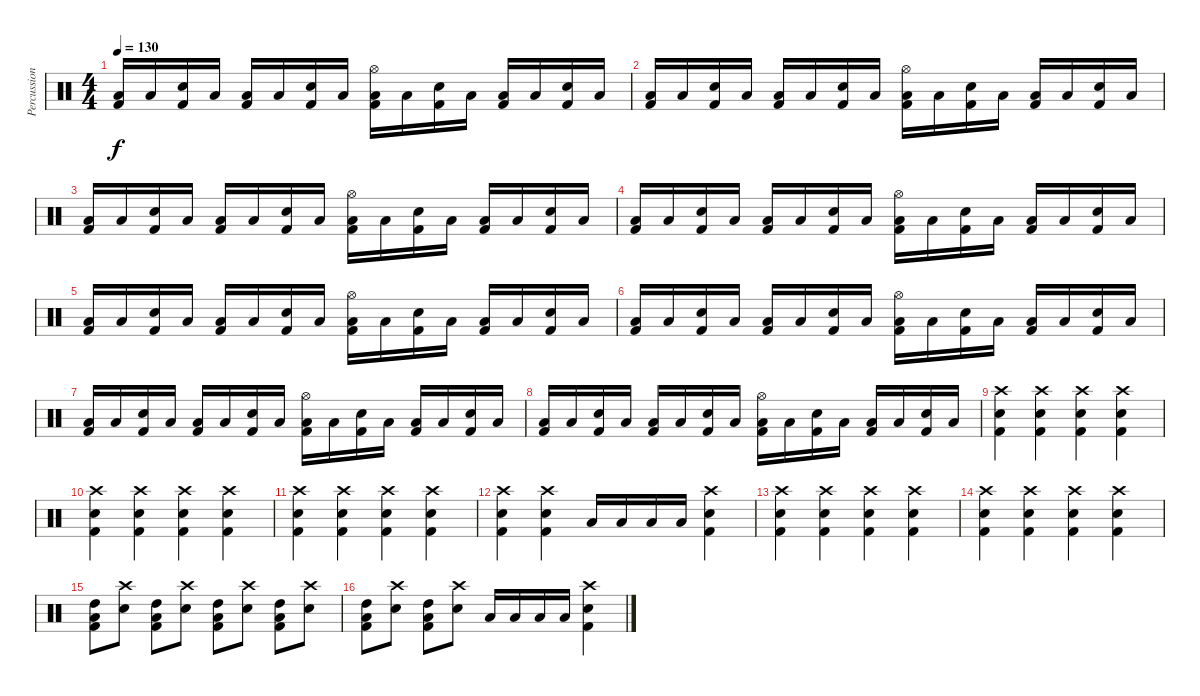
\track ("Percussion" "Percussion") {instrument percussion}
\staff {score}
\articulation defaults
\ts (4 4)
\tempo 130
\clef neutral
\ks c
("Low Tom (hit)" "Kick (hit) 2").16{dy f} "Low Tom (hit)".16 ("Snare (hit) 2" "Kick (hit) 2").16 "Low Tom (hit)".16 ("Low Tom (hit)" "Kick (hit) 2").16 "Low Tom (hit)".16 ("Snare (hit) 2" "Kick (hit) 2").16 "Low Tom (hit)".16 ("Low Tom (hit)" "Kick (hit) 2" "Hi-Hat (open)").16 "Low Tom (hit)".16 ("Snare (hit) 2" "Kick (hit) 2").16 "Low Tom (hit)".16 ("Low Tom (hit)" "Kick (hit) 2").16 "Low Tom (hit)".16 ("Snare (hit) 2" "Kick (hit) 2").16 "Low Tom (hit)".16 |
("Low Tom (hit)" "Kick (hit) 2").16 "Low Tom (hit)".16 ("Snare (hit) 2" "Kick (hit) 2").16 "Low Tom (hit)".16 ("Low Tom (hit)" "Kick (hit) 2").16 "Low Tom (hit)".16 ("Snare (hit) 2" "Kick (hit) 2").16 "Low Tom (hit)".16 ("Low Tom (hit)" "Kick (hit) 2" "Hi-Hat (open)").16 "Low Tom (hit)".16 ("Snare (hit) 2" "Kick (hit) 2").16 "Low Tom (hit)".16 ("Low Tom (hit)" "Kick (hit) 2").16 "Low Tom (hit)".16 ("Snare (hit) 2" "Kick (hit) 2").16 "Low Tom (hit)".16 |
("Low Tom (hit)" "Kick (hit) 2").16 "Low Tom (hit)".16 ("Snare (hit) 2" "Kick (hit) 2").16 "Low Tom (hit)".16 ("Low Tom (hit)" "Kick (hit) 2").16 "Low Tom (hit)".16 ("Snare (hit) 2" "Kick (hit) 2").16 "Low Tom (hit)".16 ("Low Tom (hit)" "Kick (hit) 2" "Hi-Hat (open)").16 "Low Tom (hit)".16 ("Snare (hit) 2" "Kick (hit) 2").16 "Low Tom (hit)".16 ("Low Tom (hit)" "Kick (hit) 2").16 "Low Tom (hit)".16 ("Snare (hit) 2" "Kick (hit) 2").16 "Low Tom (hit)".16 |
("Low Tom (hit)" "Kick (hit) 2").16 "Low Tom (hit)".16 ("Snare (hit) 2" "Kick (hit) 2").16 "Low Tom (hit)".16 ("Low Tom (hit)" "Kick (hit) 2").16 "Low Tom (hit)".16 ("Snare (hit) 2" "Kick (hit) 2").16 "Low Tom (hit)".16 ("Low Tom (hit)" "Kick (hit) 2" "Hi-Hat (open)").16 "Low Tom (hit)".16 ("Snare (hit) 2" "Kick (hit) 2").16 "Low Tom (hit)".16 ("Low Tom (hit)" "Kick (hit) 2").16 "Low Tom (hit)".16 ("Snare (hit) 2" "Kick (hit) 2").16 "Low Tom (hit)".16 |
("Low Tom (hit)" "Kick (hit) 2").16 "Low Tom (hit)".16 ("Snare (hit) 2" "Kick (hit) 2").16 "Low Tom (hit)".16 ("Low Tom (hit)" "Kick (hit) 2").16 "Low Tom (hit)".16 ("Snare (hit) 2" "Kick (hit) 2").16 "Low Tom (hit)".16 ("Low Tom (hit)" "Kick (hit) 2" "Hi-Hat (open)").16 "Low Tom (hit)".16 ("Snare (hit) 2" "Kick (hit) 2").16 "Low Tom (hit)".16 ("Low Tom (hit)" "Kick (hit) 2").16 "Low Tom (hit)".16 ("Snare (hit) 2" "Kick (hit) 2").16 "Low Tom (hit)".16 |
("Low Tom (hit)" "Kick (hit) 2").16 "Low Tom (hit)".16 ("Snare (hit) 2" "Kick (hit) 2").16 "Low Tom (hit)".16 ("Low Tom (hit)" "Kick (hit) 2").16 "Low Tom (hit)".16 ("Snare (hit) 2" "Kick (hit) 2").16 "Low Tom (hit)".16 ("Low Tom (hit)" "Kick (hit) 2" "Hi-Hat (open)").16 "Low Tom (hit)".16 ("Snare (hit) 2" "Kick (hit) 2").16 "Low Tom (hit)".16 ("Low Tom (hit)" "Kick (hit) 2").16 "Low Tom (hit)".16 ("Snare (hit) 2" "Kick (hit) 2").16 "Low Tom (hit)".16 |
("Low Tom (hit)" "Kick (hit) 2").16 "Low Tom (hit)".16 ("Snare (hit) 2" "Kick (hit) 2").16 "Low Tom (hit)".16 ("Low Tom (hit)" "Kick (hit) 2").16 "Low Tom (hit)".16 ("Snare (hit) 2" "Kick (hit) 2").16 "Low Tom (hit)".16 ("Low Tom (hit)" "Kick (hit) 2" "Hi-Hat (open)").16 "Low Tom (hit)".16 ("Snare (hit) 2" "Kick (hit) 2").16 "Low Tom (hit)".16 ("Low Tom (hit)" "Kick (hit) 2").16 "Low Tom (hit)".16 ("Snare (hit) 2" "Kick (hit) 2").16 "Low Tom (hit)".16 |
("Low Tom (hit)" "Kick (hit) 2").16 "Low Tom (hit)".16 ("Snare (hit) 2" "Kick (hit) 2").16 "Low Tom (hit)".16 ("Low Tom (hit)" "Kick (hit) 2").16 "Low Tom (hit)".16 ("Snare (hit) 2" "Kick (hit) 2").16 "Low Tom (hit)".16 ("Low Tom (hit)" "Kick (hit) 2" "Hi-Hat (open)").16 "Low Tom (hit)".16 ("Snare (hit) 2" "Kick (hit) 2").16 "Low Tom (hit)".16 ("Low Tom (hit)" "Kick (hit) 2").16 "Low Tom (hit)".16 ("Snare (hit) 2" "Kick (hit) 2").16 "Low Tom (hit)".16 |
("Snare (hit) 2" "Crash high (hit)" "Kick (hit) 2").4 ("Snare (hit) 2" "Crash high (hit)" "Kick (hit) 2").4 ("Snare (hit) 2" "Crash high (hit)" "Kick (hit) 2").4 ("Snare (hit) 2" "Crash high (hit)" "Kick (hit) 2").4 |
("Snare (hit) 2" "Crash high (hit)" "Kick (hit) 2").4 ("Snare (hit) 2" "Crash high (hit)" "Kick (hit) 2").4 ("Snare (hit) 2" "Crash high (hit)" "Kick (hit) 2").4 ("Snare (hit) 2" "Crash high (hit)" "Kick (hit) 2").4 |
("Snare (hit) 2" "Crash high (hit)" "Kick (hit) 2").4 ("Snare (hit) 2" "Crash high (hit)" "Kick (hit) 2").4 ("Snare (hit) 2" "Crash high (hit)" "Kick (hit) 2").4 ("Snare (hit) 2" "Crash high (hit)" "Kick (hit) 2").4 |
("Snare (hit) 2" "Crash high (hit)" "Kick (hit) 2").4 ("Snare (hit) 2" "Crash high (hit)" "Kick (hit) 2").4 "Low Tom (hit)".16 "Low Tom (hit)".16 "Low Tom (hit)".16 "Low Tom (hit)".16 ("Snare (hit) 2" "Crash high (hit)" "Kick (hit) 2").4 |
("Snare (hit) 2" "Crash high (hit)" "Kick (hit) 2").4 ("Snare (hit) 2" "Crash high (hit)" "Kick (hit) 2").4 ("Snare (hit) 2" "Crash high (hit)" "Kick (hit) 2").4 ("Snare (hit) 2" "Crash high (hit)" "Kick (hit) 2").4 |
("Snare (hit) 2" "Crash high (hit)" "Kick (hit) 2").4 ("Snare (hit) 2" "Crash high (hit)" "Kick (hit) 2").4 ("Snare (hit) 2" "Crash high (hit)" "Kick (hit) 2").4 ("Snare (hit) 2" "Crash high (hit)" "Kick (hit) 2").4 |
("Kick (hit) 2" "Low Tom (hit)" "High Tom (hit)").8 ("Crash high (hit)" "Snare (hit) 2").8 ("Kick (hit) 2" "Low Tom (hit)" "High Tom (hit)").8 ("Crash high (hit)" "Snare (hit) 2").8 ("Kick (hit) 2" "Low Tom (hit)" "High Tom (hit)").8 ("Crash high (hit)" "Snare (hit) 2").8 ("Kick (hit) 2" "Low Tom (hit)" "High Tom (hit)").8 ("Crash high (hit)" "Snare (hit) 2").8 |
("Kick (hit) 2" "Low Tom (hit)" "High Tom (hit)").8 ("Crash high (hit)" "Snare (hit) 2").8 ("Kick (hit) 2" "Low Tom (hit)" "High Tom (hit)").8 ("Crash high (hit)" "Snare (hit) 2").8 "Low Tom (hit)".16 "Low Tom (hit)".16 "Low Tom (hit)".16 "Low Tom (hit)".16 ("Snare (hit) 2" "Crash high (hit)" "Kick (hit) 2").4
